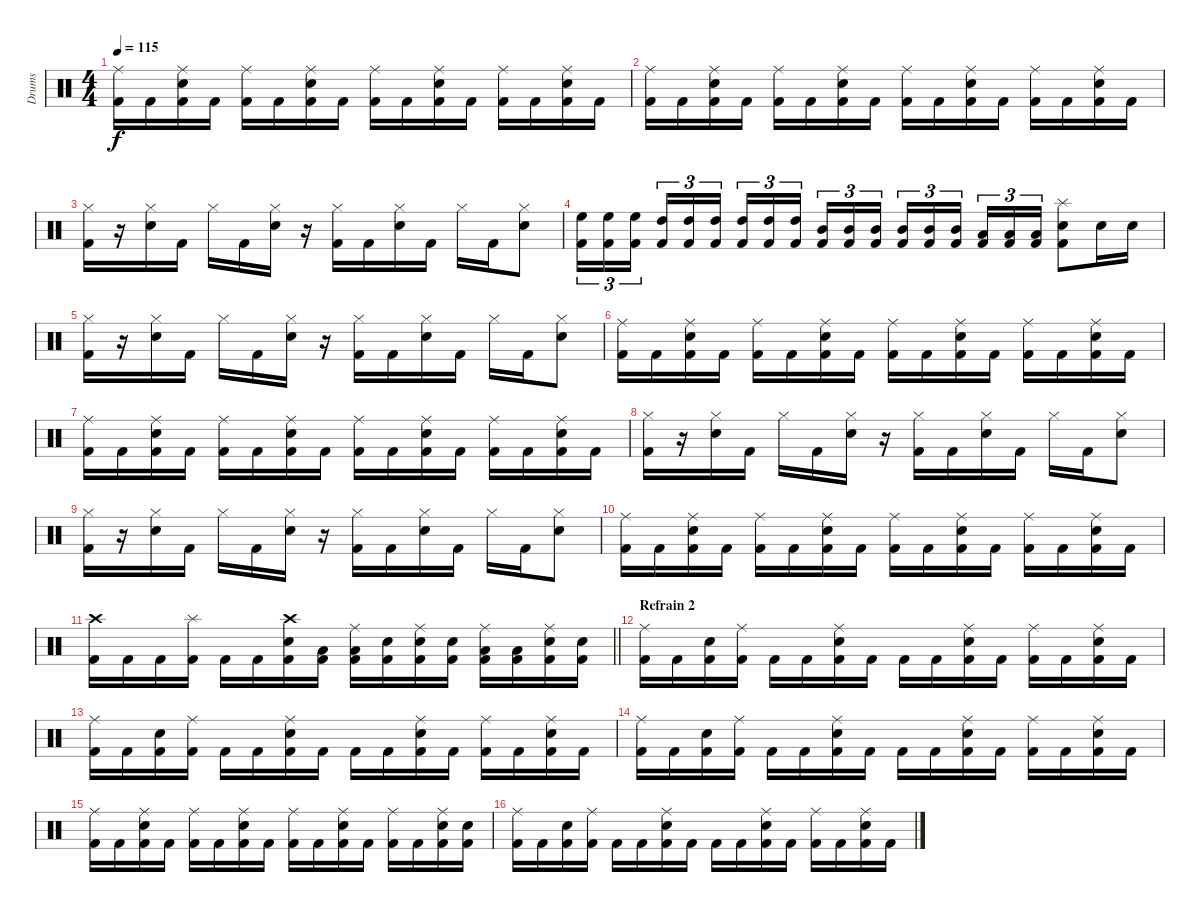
\track ("Drums" "Drums") {instrument percussion}
\staff {score}
\articulation defaults
\ts (4 4)
\tempo 115
\clef neutral
\ks c
("Ride (middle)" "Kick (hit) 2").16{dy f} "Kick (hit) 2".16 ("Ride (middle)" "Electric Snare (hit)" "Kick (hit) 2").16 "Kick (hit) 2".16 ("Ride (middle)" "Kick (hit) 2").16 "Kick (hit) 2".16 ("Ride (middle)" "Electric Snare (hit)" "Kick (hit) 2").16 "Kick (hit) 2".16 ("Ride (middle)" "Kick (hit) 2").16 "Kick (hit) 2".16 ("Ride (middle)" "Electric Snare (hit)" "Kick (hit) 2").16 "Kick (hit) 2".16 ("Ride (middle)" "Kick (hit) 2").16 "Kick (hit) 2".16 ("Ride (middle)" "Electric Snare (hit)" "Kick (hit) 2").16 "Kick (hit) 2".16 |
("Ride (middle)" "Kick (hit) 2").16 "Kick (hit) 2".16 ("Ride (middle)" "Electric Snare (hit)" "Kick (hit) 2").16 "Kick (hit) 2".16 ("Ride (middle)" "Kick (hit) 2").16 "Kick (hit) 2".16 ("Ride (middle)" "Electric Snare (hit)" "Kick (hit) 2").16 "Kick (hit) 2".16 ("Ride (middle)" "Kick (hit) 2").16 "Kick (hit) 2".16 ("Ride (middle)" "Electric Snare (hit)" "Kick (hit) 2").16 "Kick (hit) 2".16 ("Ride (middle)" "Kick (hit) 2").16 "Kick (hit) 2".16 ("Ride (middle)" "Electric Snare (hit)" "Kick (hit) 2").16 "Kick (hit) 2".16 |
("Hi-Hat (closed)" "Kick (hit) 2").16 r.16 ("Hi-Hat (closed)" "Electric Snare (hit)").16 "Kick (hit) 2".16 "Hi-Hat (closed)".16 "Kick (hit) 2".16 ("Hi-Hat (closed)" "Electric Snare (hit)").16 r.16 ("Hi-Hat (closed)" "Kick (hit) 2").16 "Kick (hit) 2".16 ("Hi-Hat (closed)" "Electric Snare (hit)").16 "Kick (hit) 2".16 "Hi-Hat (closed)".16 "Kick (hit) 2".16 ("Hi-Hat (closed)" "Electric Snare (hit)").8 |
("High Floor Tom (hit)" "Kick (hit) 2").16{tu (3 2)} ("High Floor Tom (hit)" "Kick (hit) 2").16{tu (3 2)} ("High Floor Tom (hit)" "Kick (hit) 2").16{tu (3 2) beam splitsecondary} ("High Tom (hit)" "Kick (hit) 2").16{tu (3 2)} ("High Tom (hit)" "Kick (hit) 2").16{tu (3 2)} ("High Tom (hit)" "Kick (hit) 2").16{tu (3 2)} ("High Tom (hit)" "Kick (hit) 2").16{tu (3 2)} ("High Tom (hit)" "Kick (hit) 2").16{tu (3 2)} ("High Tom (hit)" "Kick (hit) 2").16{tu (3 2) beam splitsecondary} ("Mid Tom (hit)" "Kick (hit) 2").16{tu (3 2)} ("Mid Tom (hit)" "Kick (hit) 2").16{tu (3 2)} ("Mid Tom (hit)" "Kick (hit) 2").16{tu (3 2)} ("Mid Tom (hit)" "Kick (hit) 2").16{tu (3 2)} ("Mid Tom (hit)" "Kick (hit) 2").16{tu (3 2)} ("Mid Tom (hit)" "Kick (hit) 2").16{tu (3 2) beam splitsecondary} ("Low Tom (hit)" "Kick (hit) 2").16{tu (3 2)} ("Low Tom (hit)" "Kick (hit) 2").16{tu (3 2)} ("Low Tom (hit)" "Kick (hit) 2").16{tu (3 2)} ("Splash (hit)" "Electric Snare (hit)" "Kick (hit) 2").8 "Electric Snare (hit)".16 "Electric Snare (hit)".16 |
("Hi-Hat (closed)" "Kick (hit) 2").16 r.16 ("Hi-Hat (closed)" "Electric Snare (hit)").16 "Kick (hit) 2".16 "Hi-Hat (closed)".16 "Kick (hit) 2".16 ("Hi-Hat (closed)" "Electric Snare (hit)").16 r.16 ("Hi-Hat (closed)" "Kick (hit) 2").16 "Kick (hit) 2".16 ("Hi-Hat (closed)" "Electric Snare (hit)").16 "Kick (hit) 2".16 "Hi-Hat (closed)".16 "Kick (hit) 2".16 ("Hi-Hat (closed)" "Electric Snare (hit)").8 |
("Ride (middle)" "Kick (hit) 2").16 "Kick (hit) 2".16 ("Ride (middle)" "Electric Snare (hit)" "Kick (hit) 2").16 "Kick (hit) 2".16 ("Ride (middle)" "Kick (hit) 2").16 "Kick (hit) 2".16 ("Ride (middle)" "Electric Snare (hit)" "Kick (hit) 2").16 "Kick (hit) 2".16 ("Ride (middle)" "Kick (hit) 2").16 "Kick (hit) 2".16 ("Ride (middle)" "Electric Snare (hit)" "Kick (hit) 2").16 "Kick (hit) 2".16 ("Ride (middle)" "Kick (hit) 2").16 "Kick (hit) 2".16 ("Ride (middle)" "Electric Snare (hit)" "Kick (hit) 2").16 "Kick (hit) 2".16 |
("Ride (middle)" "Kick (hit) 2").16 "Kick (hit) 2".16 ("Ride (middle)" "Electric Snare (hit)" "Kick (hit) 2").16 "Kick (hit) 2".16 ("Ride (middle)" "Kick (hit) 2").16 "Kick (hit) 2".16 ("Ride (middle)" "Electric Snare (hit)" "Kick (hit) 2").16 "Kick (hit) 2".16 ("Ride (middle)" "Kick (hit) 2").16 "Kick (hit) 2".16 ("Ride (middle)" "Electric Snare (hit)" "Kick (hit) 2").16 "Kick (hit) 2".16 ("Ride (middle)" "Kick (hit) 2").16 "Kick (hit) 2".16 ("Ride (middle)" "Electric Snare (hit)" "Kick (hit) 2").16 "Kick (hit) 2".16 |
("Hi-Hat (closed)" "Kick (hit) 2").16 r.16 ("Hi-Hat (closed)" "Electric Snare (hit)").16 "Kick (hit) 2".16 "Hi-Hat (closed)".16 "Kick (hit) 2".16 ("Hi-Hat (closed)" "Electric Snare (hit)").16 r.16 ("Hi-Hat (closed)" "Kick (hit) 2").16 "Kick (hit) 2".16 ("Hi-Hat (closed)" "Electric Snare (hit)").16 "Kick (hit) 2".16 "Hi-Hat (closed)".16 "Kick (hit) 2".16 ("Hi-Hat (closed)" "Electric Snare (hit)").8 |
("Hi-Hat (closed)" "Kick (hit) 2").16 r.16 ("Hi-Hat (closed)" "Electric Snare (hit)").16 "Kick (hit) 2".16 "Hi-Hat (closed)".16 "Kick (hit) 2".16 ("Hi-Hat (closed)" "Electric Snare (hit)").16 r.16 ("Hi-Hat (closed)" "Kick (hit) 2").16 "Kick (hit) 2".16 ("Hi-Hat (closed)" "Electric Snare (hit)").16 "Kick (hit) 2".16 "Hi-Hat (closed)".16 "Kick (hit) 2".16 ("Hi-Hat (closed)" "Electric Snare (hit)").8 |
("Ride (middle)" "Kick (hit) 2").16 "Kick (hit) 2".16 ("Ride (middle)" "Electric Snare (hit)" "Kick (hit) 2").16 "Kick (hit) 2".16 ("Ride (middle)" "Kick (hit) 2").16 "Kick (hit) 2".16 ("Ride (middle)" "Electric Snare (hit)" "Kick (hit) 2").16 "Kick (hit) 2".16 ("Ride (middle)" "Kick (hit) 2").16 "Kick (hit) 2".16 ("Ride (middle)" "Electric Snare (hit)" "Kick (hit) 2").16 "Kick (hit) 2".16 ("Ride (middle)" "Kick (hit) 2").16 "Kick (hit) 2".16 ("Ride (middle)" "Electric Snare (hit)" "Kick (hit) 2").16 "Kick (hit) 2".16 |
\barLineRight lightlight
("Crash high (hit)" "Kick (hit) 2").16 "Kick (hit) 2".16 "Kick (hit) 2".16 ("Splash (hit)" "Kick (hit) 2").16 "Kick (hit) 2".16 "Kick (hit) 2".16 ("Crash high (hit)" "Electric Snare (hit)" "Kick (hit) 2").16 ("Low Tom (hit)" "Kick (hit) 2").16 ("Ride (middle)" "Low Tom (hit)" "Kick (hit) 2").16 ("Electric Snare (hit)" "Kick (hit) 2").16 ("Ride (middle)" "Electric Snare (hit)" "Kick (hit) 2").16 ("Electric Snare (hit)" "Kick (hit) 2").16 ("Ride (middle)" "Low Tom (hit)" "Kick (hit) 2").16 ("Low Tom (hit)" "Kick (hit) 2").16 ("Ride (middle)" "Electric Snare (hit)" "Kick (hit) 2").16 ("Electric Snare (hit)" "Kick (hit) 2").16 |
\section ("" "Refrain 2")
("Ride (middle)" "Kick (hit) 2").16 "Kick (hit) 2".16 ("Electric Snare (hit)" "Kick (hit) 2").16 ("Ride (middle)" "Kick (hit) 2").16 "Kick (hit) 2".16 "Kick (hit) 2".16 ("Ride (middle)" "Electric Snare (hit)" "Kick (hit) 2").16 "Kick (hit) 2".16 "Kick (hit) 2".16 "Kick (hit) 2".16 ("Ride (middle)" "Electric Snare (hit)" "Kick (hit) 2").16 "Kick (hit) 2".16 ("Ride (middle)" "Kick (hit) 2").16 "Kick (hit) 2".16 ("Ride (middle)" "Electric Snare (hit)" "Kick (hit) 2").16 "Kick (hit) 2".16 |
("Ride (middle)" "Kick (hit) 2").16 "Kick (hit) 2".16 ("Electric Snare (hit)" "Kick (hit) 2").16 ("Ride (middle)" "Kick (hit) 2").16 "Kick (hit) 2".16 "Kick (hit) 2".16 ("Ride (middle)" "Electric Snare (hit)" "Kick (hit) 2").16 "Kick (hit) 2".16 "Kick (hit) 2".16 "Kick (hit) 2".16 ("Ride (middle)" "Electric Snare (hit)" "Kick (hit) 2").16 "Kick (hit) 2".16 ("Ride (middle)" "Kick (hit) 2").16 "Kick (hit) 2".16 ("Ride (middle)" "Electric Snare (hit)" "Kick (hit) 2").16 "Kick (hit) 2".16 |
("Ride (middle)" "Kick (hit) 2").16 "Kick (hit) 2".16 ("Electric Snare (hit)" "Kick (hit) 2").16 ("Ride (middle)" "Kick (hit) 2").16 "Kick (hit) 2".16 "Kick (hit) 2".16 ("Ride (middle)" "Electric Snare (hit)" "Kick (hit) 2").16 "Kick (hit) 2".16 "Kick (hit) 2".16 "Kick (hit) 2".16 ("Ride (middle)" "Electric Snare (hit)" "Kick (hit) 2").16 "Kick (hit) 2".16 ("Ride (middle)" "Kick (hit) 2").16 "Kick (hit) 2".16 ("Ride (middle)" "Electric Snare (hit)" "Kick (hit) 2").16 "Kick (hit) 2".16 |
("Ride (middle)" "Kick (hit) 2").16 "Kick (hit) 2".16 ("Ride (middle)" "Electric Snare (hit)" "Kick (hit) 2").16 "Kick (hit) 2".16 ("Ride (middle)" "Kick (hit) 2").16 "Kick (hit) 2".16 ("Ride (middle)" "Electric Snare (hit)" "Kick (hit) 2").16 "Kick (hit) 2".16 ("Ride (middle)" "Kick (hit) 2").16 "Kick (hit) 2".16 ("Ride (middle)" "Electric Snare (hit)" "Kick (hit) 2").16 "Kick (hit) 2".16 ("Ride (middle)" "Kick (hit) 2").16 "Kick (hit) 2".16 ("Ride (middle)" "Electric Snare (hit)" "Kick (hit) 2").16 ("Electric Snare (hit)" "Kick (hit) 2").16 |
("Ride (middle)" "Kick (hit) 2").16 "Kick (hit) 2".16 ("Electric Snare (hit)" "Kick (hit) 2").16 ("Ride (middle)" "Kick (hit) 2").16 "Kick (hit) 2".16 "Kick (hit) 2".16 ("Ride (middle)" "Electric Snare (hit)" "Kick (hit) 2").16 "Kick (hit) 2".16 "Kick (hit) 2".16 "Kick (hit) 2".16 ("Ride (middle)" "Electric Snare (hit)" "Kick (hit) 2").16 "Kick (hit) 2".16 ("Ride (middle)" "Kick (hit) 2").16 "Kick (hit) 2".16 ("Ride (middle)" "Electric Snare (hit)" "Kick (hit) 2").16 "Kick (hit) 2".16
